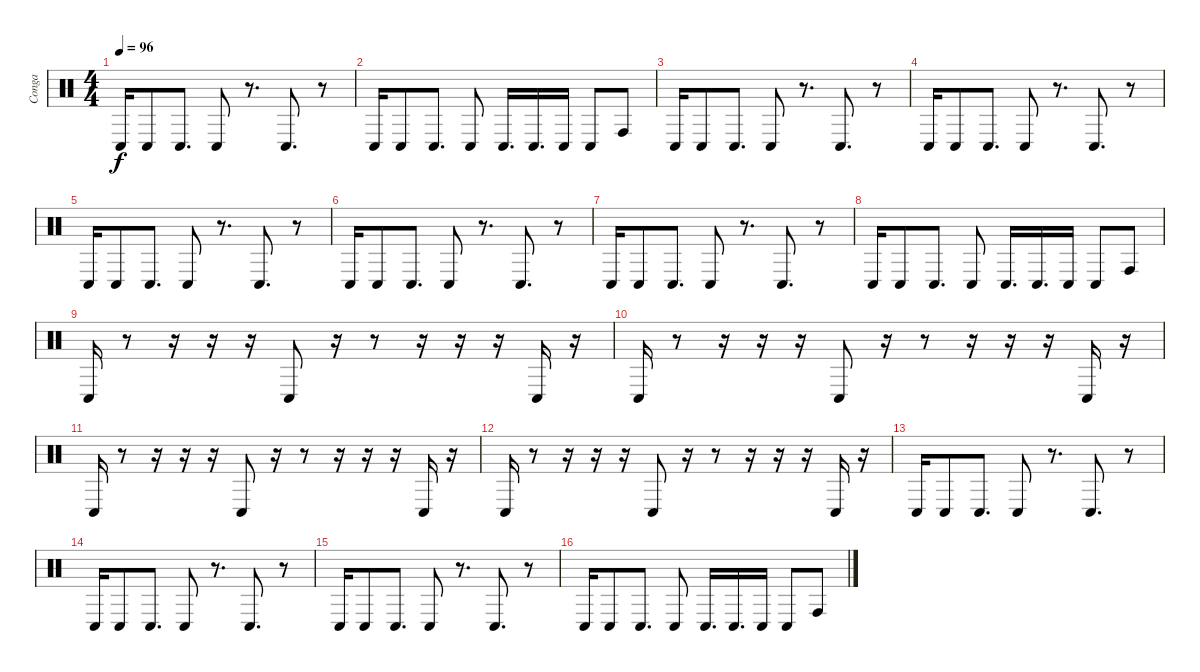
\track ("Conga" "Conga") {instrument percussion}
\staff {score}
\articulation defaults
\ts (4 4)
\tempo 96
\clef neutral
\ks c "Conga low (hit)".16{dy f} "Conga low (hit)".8 "Conga low (hit)".8{d} "Conga low (hit)".8
r.8{d} "Conga low (hit)".8{d} r.8 |
"Conga low (hit)".16 "Conga low (hit)".8 "Conga low (hit)".8{d} "Conga low (hit)".8 "Conga low (hit)".16{d} "Conga low (hit)".16{d} "Conga low (hit)".16 "Conga low (hit)".8 "Conga high (hit)".8 |
"Conga low (hit)".16 "Conga low (hit)".8 "Conga low (hit)".8{d} "Conga low (hit)".8 r.8{d} "Conga low (hit)".8{d} r.8 |
"Conga low (hit)".16 "Conga low (hit)".8 "Conga low (hit)".8{d} "Conga low (hit)".8 r.8{d} "Conga low (hit)".8{d} r.8 |
"Conga low (hit)".16 "Conga low (hit)".8 "Conga low (hit)".8{d} "Conga low (hit)".8 r.8{d} "Conga low (hit)".8{d} r.8 |
"Conga low (hit)".16 "Conga low (hit)".8 "Conga low (hit)".8{d} "Conga low (hit)".8 r.8{d} "Conga low (hit)".8{d} r.8 |
"Conga low (hit)".16 "Conga low (hit)".8 "Conga low (hit)".8{d} "Conga low (hit)".8 r.8{d} "Conga low (hit)".8{d} r.8 |
"Conga low (hit)".16 "Conga low (hit)".8 "Conga low (hit)".8{d} "Conga low (hit)".8 "Conga low (hit)".16{d} "Conga low (hit)".16{d} "Conga low (hit)".16 "Conga low (hit)".8 "Conga high (hit)".8 |
"Conga low (hit)".16 r.8 r.16 r.16 r.16 "Conga low (hit)".8 r.16 r.8 r.16 r.16 r.16 "Conga low (hit)".16 r.16 |
"Conga low (hit)".16 r.8 r.16 r.16 r.16 "Conga low (hit)".8 r.16 r.8 r.16 r.16 r.16 "Conga low (hit)".16 r.16 |
"Conga low (hit)".16 r.8 r.16 r.16 r.16 "Conga low (hit)".8 r.16 r.8 r.16 r.16 r.16 "Conga low (hit)".16 r.16 |
"Conga low (hit)".16 r.8 r.16 r.16 r.16 "Conga low (hit)".8 r.16 r.8 r.16 r.16 r.16 "Conga low (hit)".16 r.16 |
"Conga low (hit)".16 "Conga low (hit)".8 "Conga low (hit)".8{d} "Conga low (hit)".8 r.8{d} "Conga low (hit)".8{d} r.8 |
"Conga low (hit)".16 "Conga low (hit)".8 "Conga low (hit)".8{d} "Conga low (hit)".8 r.8{d} "Conga low (hit)".8{d} r.8 |
"Conga low (hit)".16 "Conga low (hit)".8 "Conga low (hit)".8{d} "Conga low (hit)".8 r.8{d} "Conga low (hit)".8{d} r.8 |
"Conga low (hit)".16 "Conga low (hit)".8 "Conga low (hit)".8{d} "Conga low (hit)".8 "Conga low (hit)".16{d} "Conga low (hit)".16{d} "Conga low (hit)".16 "Conga low (hit)".8 "Conga high (hit)".8
